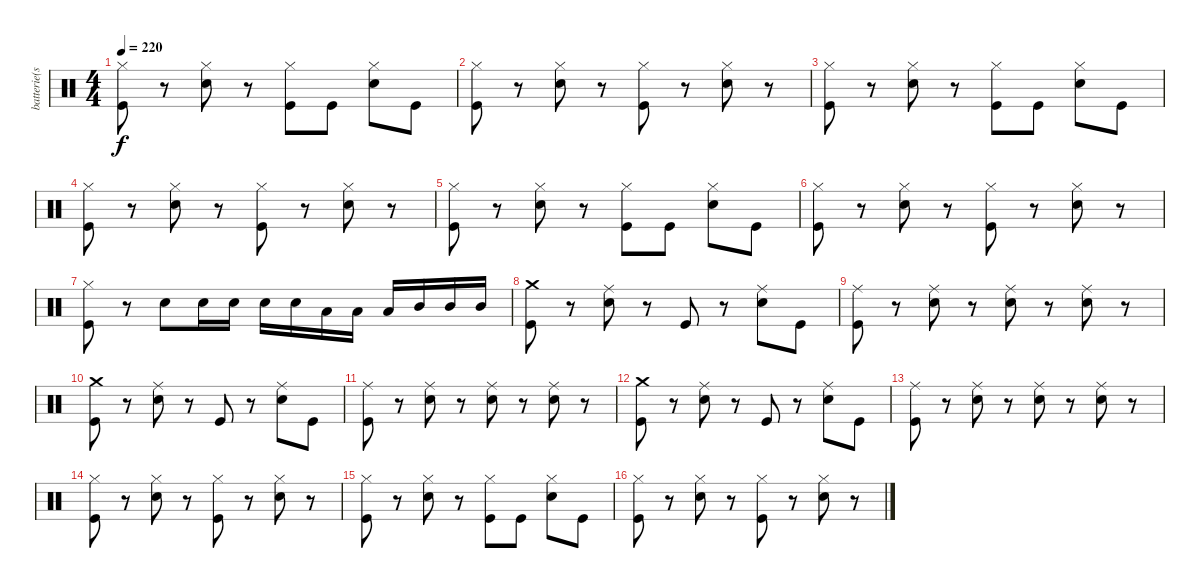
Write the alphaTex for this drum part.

\track ("batterie(scott)" "batterie(s") {instrument percussion}
\staff {score}
\articulation defaults
\ts (4 4)
\tempo 220
\clef neutral
\ks c
("Hi-Hat (closed)" "Kick (hit)").8{dy f} r.8 ("Hi-Hat (closed)" "Snare (hit) 2").8 r.8 ("Hi-Hat (closed)" "Kick (hit)").8 "Kick (hit)".8 ("Hi-Hat (closed)" "Snare (hit) 2").8 "Kick (hit)".8 |
("Hi-Hat (closed)" "Kick (hit)").8 r.8 ("Hi-Hat (closed)" "Snare (hit) 2").8 r.8 ("Hi-Hat (closed)" "Kick (hit)").8 r.8 ("Hi-Hat (closed)" "Snare (hit) 2").8 r.8 |
("Hi-Hat (closed)" "Kick (hit)").8 r.8 ("Hi-Hat (closed)" "Snare (hit) 2").8 r.8 ("Hi-Hat (closed)" "Kick (hit)").8 "Kick (hit)".8 ("Hi-Hat (closed)" "Snare (hit) 2").8 "Kick (hit)".8 |
("Hi-Hat (closed)" "Kick (hit)").8 r.8 ("Hi-Hat (closed)" "Snare (hit) 2").8 r.8 ("Hi-Hat (closed)" "Kick (hit)").8 r.8 ("Hi-Hat (closed)" "Snare (hit) 2").8 r.8 |
("Hi-Hat (closed)" "Kick (hit)").8 r.8 ("Hi-Hat (closed)" "Snare (hit) 2").8 r.8 ("Hi-Hat (closed)" "Kick (hit)").8 "Kick (hit)".8 ("Hi-Hat (closed)" "Snare (hit) 2").8 "Kick (hit)".8 |
("Hi-Hat (closed)" "Kick (hit)").8 r.8 ("Hi-Hat (closed)" "Snare (hit) 2").8 r.8 ("Hi-Hat (closed)" "Kick (hit)").8 r.8 ("Hi-Hat (closed)" "Snare (hit) 2").8 r.8 |
("Hi-Hat (closed)" "Kick (hit)").8 r.8 "Snare (hit) 2".8 "Snare (hit) 2".16 "Snare (hit) 2".16 "Snare (hit) 2".16 "Snare (hit) 2".16 "Low Tom (hit)".16 "Low Tom (hit)".16 "Low Tom (hit)".16 "Mid Tom (hit)".16 "Mid Tom (hit)".16 "Mid Tom (hit)".16 |
("Crash medium (hit)" "Kick (hit)").8 r.8 ("Ride (middle)" "Snare (hit) 2").8 r.8 "Kick (hit)".8 r.8 ("Ride (middle)" "Snare (hit) 2").8 "Kick (hit)".8 |
("Ride (middle)" "Kick (hit)").8 r.8 ("Ride (middle)" "Snare (hit) 2").8 r.8 ("Ride (middle)" "Snare (hit) 2").8 r.8 ("Ride (middle)" "Snare (hit) 2").8 r.8 |
("Crash medium (hit)" "Kick (hit)").8 r.8 ("Ride (middle)" "Snare (hit) 2").8 r.8 "Kick (hit)".8 r.8 ("Ride (middle)" "Snare (hit) 2").8 "Kick (hit)".8 |
("Ride (middle)" "Kick (hit)").8 r.8 ("Ride (middle)" "Snare (hit) 2").8 r.8 ("Ride (middle)" "Snare (hit) 2").8 r.8 ("Ride (middle)" "Snare (hit) 2").8 r.8 |
("Crash medium (hit)" "Kick (hit)").8 r.8 ("Ride (middle)" "Snare (hit) 2").8 r.8 "Kick (hit)".8 r.8 ("Ride (middle)" "Snare (hit) 2").8 "Kick (hit)".8 |
("Ride (middle)" "Kick (hit)").8 r.8 ("Ride (middle)" "Snare (hit) 2").8 r.8 ("Ride (middle)" "Snare (hit) 2").8 r.8 ("Ride (middle)" "Snare (hit) 2").8 r.8 |
("Hi-Hat (closed)" "Kick (hit)").8 r.8 ("Hi-Hat (closed)" "Snare (hit) 2").8 r.8 ("Hi-Hat (closed)" "Kick (hit)").8 r.8 ("Hi-Hat (closed)" "Snare (hit) 2").8 r.8 |
("Hi-Hat (closed)" "Kick (hit)").8 r.8 ("Hi-Hat (closed)" "Snare (hit) 2").8 r.8 ("Hi-Hat (closed)" "Kick (hit)").8 "Kick (hit)".8 ("Hi-Hat (closed)" "Snare (hit) 2").8 "Kick (hit)".8 |
("Hi-Hat (closed)" "Kick (hit)").8 r.8 ("Hi-Hat (closed)" "Snare (hit) 2").8 r.8 ("Hi-Hat (closed)" "Kick (hit)").8 r.8 ("Hi-Hat (closed)" "Snare (hit) 2").8 r.8
